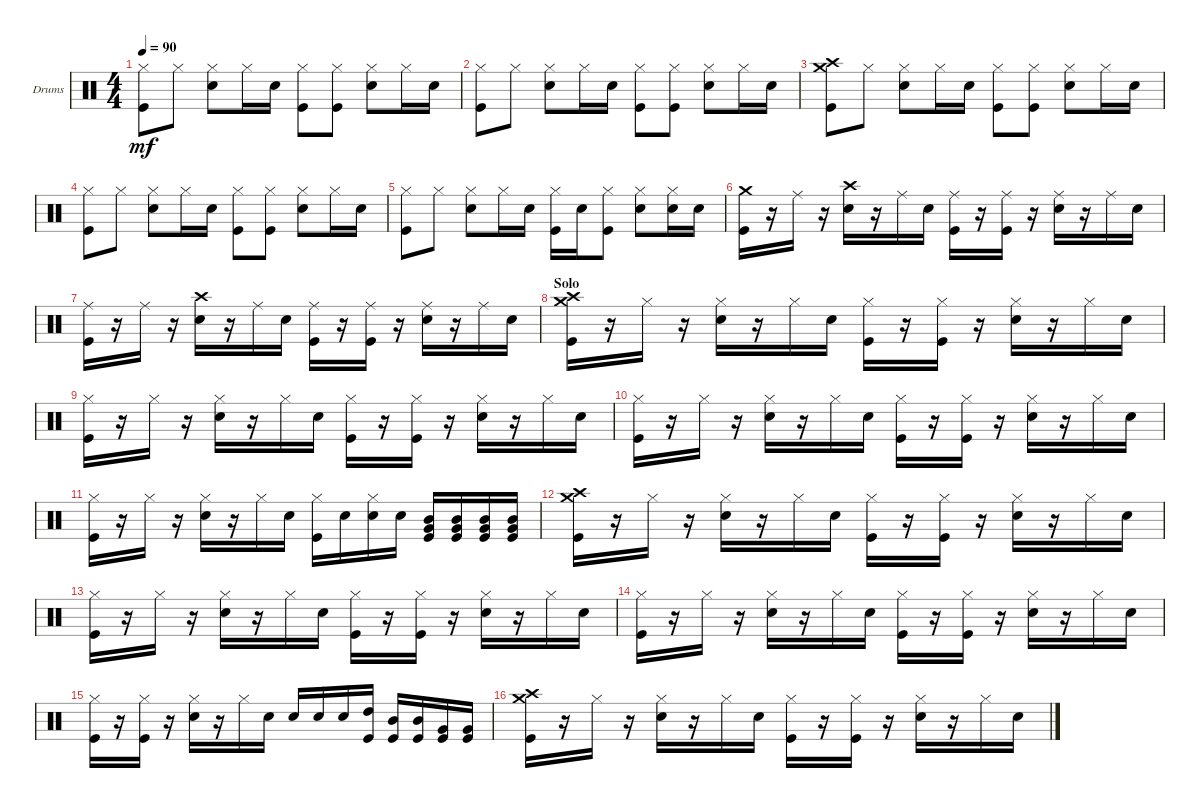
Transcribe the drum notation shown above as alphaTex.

\defaultSystemsLayout 4
\bracketExtendMode groupsimilarinstruments
\firstSystemTrackNameOrientation horizontal
\otherSystemsTrackNameOrientation horizontal
\track ("Drums" "Drums") {instrument percussion}
\staff {score}
\articulation defaults
\ts (4 4)
\tempo 90
\clef neutral
\ks c
("Hi-Hat (closed)" "Kick (hit)").8{dy mf} "Hi-Hat (closed)".8 ("Hi-Hat (closed)" "Snare (hit) 2").8 "Hi-Hat (closed)".16 "Snare (hit) 2".16 ("Hi-Hat (closed)" "Kick (hit)").8 ("Hi-Hat (closed)" "Kick (hit)").8 ("Hi-Hat (closed)" "Snare (hit) 2").8 "Hi-Hat (closed)".16 "Snare (hit) 2".16 |
("Hi-Hat (closed)" "Kick (hit)").8 "Hi-Hat (closed)".8 ("Hi-Hat (closed)" "Snare (hit) 2").8 "Hi-Hat (closed)".16 "Snare (hit) 2".16 ("Hi-Hat (closed)" "Kick (hit)").8 ("Hi-Hat (closed)" "Kick (hit)").8 ("Hi-Hat (closed)" "Snare (hit) 2").8 "Hi-Hat (closed)".16 "Snare (hit) 2".16 |
("Crash medium (hit)" "Crash high (hit)" "Kick (hit)").8 "Hi-Hat (closed)".8 ("Hi-Hat (closed)" "Snare (hit) 2").8 "Hi-Hat (closed)".16 "Snare (hit) 2".16 ("Hi-Hat (closed)" "Kick (hit)").8 ("Hi-Hat (closed)" "Kick (hit)").8 ("Hi-Hat (closed)" "Snare (hit) 2").8 "Hi-Hat (closed)".16 "Snare (hit) 2".16 |
("Hi-Hat (closed)" "Kick (hit)").8 "Hi-Hat (closed)".8 ("Hi-Hat (closed)" "Snare (hit) 2").8 "Hi-Hat (closed)".16 "Snare (hit) 2".16 ("Hi-Hat (closed)" "Kick (hit)").8 ("Hi-Hat (closed)" "Kick (hit)").8 ("Hi-Hat (closed)" "Snare (hit) 2").8 "Hi-Hat (closed)".16 "Snare (hit) 2".16 |
("Hi-Hat (closed)" "Kick (hit)").8 "Hi-Hat (closed)".8 ("Hi-Hat (closed)" "Snare (hit) 2").8 "Hi-Hat (closed)".16 "Snare (hit) 2".16 ("Hi-Hat (closed)" "Kick (hit)").16 "Snare (hit) 2".16 ("Hi-Hat (closed)" "Kick (hit)").8 ("Hi-Hat (closed)" "Snare (hit) 2").8 ("Hi-Hat (closed)" "Snare (hit) 2").16 "Snare (hit) 2".16 |
("Crash medium (hit)" "Kick (hit)").16 r.16 "Ride (middle)".16 r.16 ("Crash high (hit)" "Snare (hit) 2").16 r.16 "Ride (middle)".16 "Snare (hit) 2".16 ("Ride (middle)" "Kick (hit)").16 r.16 ("Ride (middle)" "Kick (hit)").16 r.16 ("Ride (middle)" "Snare (hit) 2").16 r.16 "Ride (middle)".16 "Snare (hit) 2".16 |
("Ride (middle)" "Kick (hit)").16 r.16 "Ride (middle)".16 r.16 ("Crash high (hit)" "Snare (hit) 2").16 r.16 "Ride (middle)".16 "Snare (hit) 2".16 ("Ride (middle)" "Kick (hit)").16 r.16 ("Ride (middle)" "Kick (hit)").16 r.16 ("Ride (middle)" "Snare (hit) 2").16 r.16 "Ride (middle)".16 "Snare (hit) 2".16 |
\section ("" "Solo")
("Crash medium (hit)" "Crash high (hit)" "Kick (hit)").16 r.16 "Hi-Hat (closed)".16 r.16 ("Hi-Hat (closed)" "Snare (hit) 2").16 r.16 "Hi-Hat (closed)".16 "Snare (hit) 2".16 ("Hi-Hat (closed)" "Kick (hit)").16 r.16 ("Hi-Hat (closed)" "Kick (hit)").16 r.16 ("Hi-Hat (closed)" "Snare (hit) 2").16 r.16 "Hi-Hat (closed)".16 "Snare (hit) 2".16 |
("Hi-Hat (closed)" "Kick (hit)").16 r.16 "Hi-Hat (closed)".16 r.16 ("Hi-Hat (closed)" "Snare (hit) 2").16 r.16 "Hi-Hat (closed)".16 "Snare (hit) 2".16 ("Hi-Hat (closed)" "Kick (hit)").16 r.16 ("Hi-Hat (closed)" "Kick (hit)").16 r.16 ("Hi-Hat (closed)" "Snare (hit) 2").16 r.16 "Hi-Hat (closed)".16 "Snare (hit) 2".16 |
("Hi-Hat (closed)" "Kick (hit)").16 r.16 "Hi-Hat (closed)".16 r.16 ("Hi-Hat (closed)" "Snare (hit) 2").16 r.16 "Hi-Hat (closed)".16 "Snare (hit) 2".16 ("Hi-Hat (closed)" "Kick (hit)").16 r.16 ("Hi-Hat (closed)" "Kick (hit)").16 r.16 ("Hi-Hat (closed)" "Snare (hit) 2").16 r.16 "Hi-Hat (closed)".16 "Snare (hit) 2".16 |
("Hi-Hat (closed)" "Kick (hit)").16 r.16 "Hi-Hat (closed)".16 r.16 ("Hi-Hat (closed)" "Snare (hit) 2").16 r.16 "Hi-Hat (closed)".16 "Snare (hit) 2".16 ("Hi-Hat (closed)" "Kick (hit)").16 "Snare (hit) 2".16 ("Hi-Hat (closed)" "Snare (hit) 2").16 "Snare (hit) 2".16 ("Mid Tom (hit)" "Very Low Tom (hit)" "Kick (hit)").16 ("Mid Tom (hit)" "Very Low Tom (hit)" "Kick (hit)").16 ("Mid Tom (hit)" "Very Low Tom (hit)" "Kick (hit)").16 ("Mid Tom (hit)" "Very Low Tom (hit)" "Kick (hit)").16 |
("Crash medium (hit)" "Crash high (hit)" "Kick (hit)").16 r.16 "Hi-Hat (closed)".16 r.16 ("Hi-Hat (closed)" "Snare (hit) 2").16 r.16 "Hi-Hat (closed)".16 "Snare (hit) 2".16 ("Hi-Hat (closed)" "Kick (hit)").16 r.16 ("Hi-Hat (closed)" "Kick (hit)").16 r.16 ("Hi-Hat (closed)" "Snare (hit) 2").16 r.16 "Hi-Hat (closed)".16 "Snare (hit) 2".16 |
("Hi-Hat (closed)" "Kick (hit)").16 r.16 "Hi-Hat (closed)".16 r.16 ("Hi-Hat (closed)" "Snare (hit) 2").16 r.16 "Hi-Hat (closed)".16 "Snare (hit) 2".16 ("Hi-Hat (closed)" "Kick (hit)").16 r.16 ("Hi-Hat (closed)" "Kick (hit)").16 r.16 ("Hi-Hat (closed)" "Snare (hit) 2").16 r.16 "Hi-Hat (closed)".16 "Snare (hit) 2".16 |
("Hi-Hat (closed)" "Kick (hit)").16 r.16 "Hi-Hat (closed)".16 r.16 ("Hi-Hat (closed)" "Snare (hit) 2").16 r.16 "Hi-Hat (closed)".16 "Snare (hit) 2".16 ("Hi-Hat (closed)" "Kick (hit)").16 r.16 ("Hi-Hat (closed)" "Kick (hit)").16 r.16 ("Hi-Hat (closed)" "Snare (hit) 2").16 r.16 "Hi-Hat (closed)".16 "Snare (hit) 2".16 |
("Hi-Hat (closed)" "Kick (hit)").16 r.16 ("Hi-Hat (closed)" "Kick (hit)").16 r.16 ("Hi-Hat (closed)" "Snare (hit) 2").16 r.16 "Hi-Hat (closed)".16 "Snare (hit) 2".16 "Snare (hit) 2".16 "Snare (hit) 2".16 "Snare (hit) 2".16 ("High Tom (hit)" "Kick (hit)").16 ("Mid Tom (hit)" "Kick (hit)").16 ("Mid Tom (hit)" "Kick (hit)").16 ("Very Low Tom (hit)" "Kick (hit)").16 ("Very Low Tom (hit)" "Kick (hit)").16 |
("Crash medium (hit)" "Crash high (hit)" "Kick (hit)").16 r.16 "Hi-Hat (closed)".16 r.16 ("Hi-Hat (closed)" "Snare (hit) 2").16 r.16 "Hi-Hat (closed)".16 "Snare (hit) 2".16 ("Hi-Hat (closed)" "Kick (hit)").16 r.16 ("Hi-Hat (closed)" "Kick (hit)").16 r.16 ("Hi-Hat (closed)" "Snare (hit) 2").16 r.16 "Hi-Hat (closed)".16 "Snare (hit) 2".16
